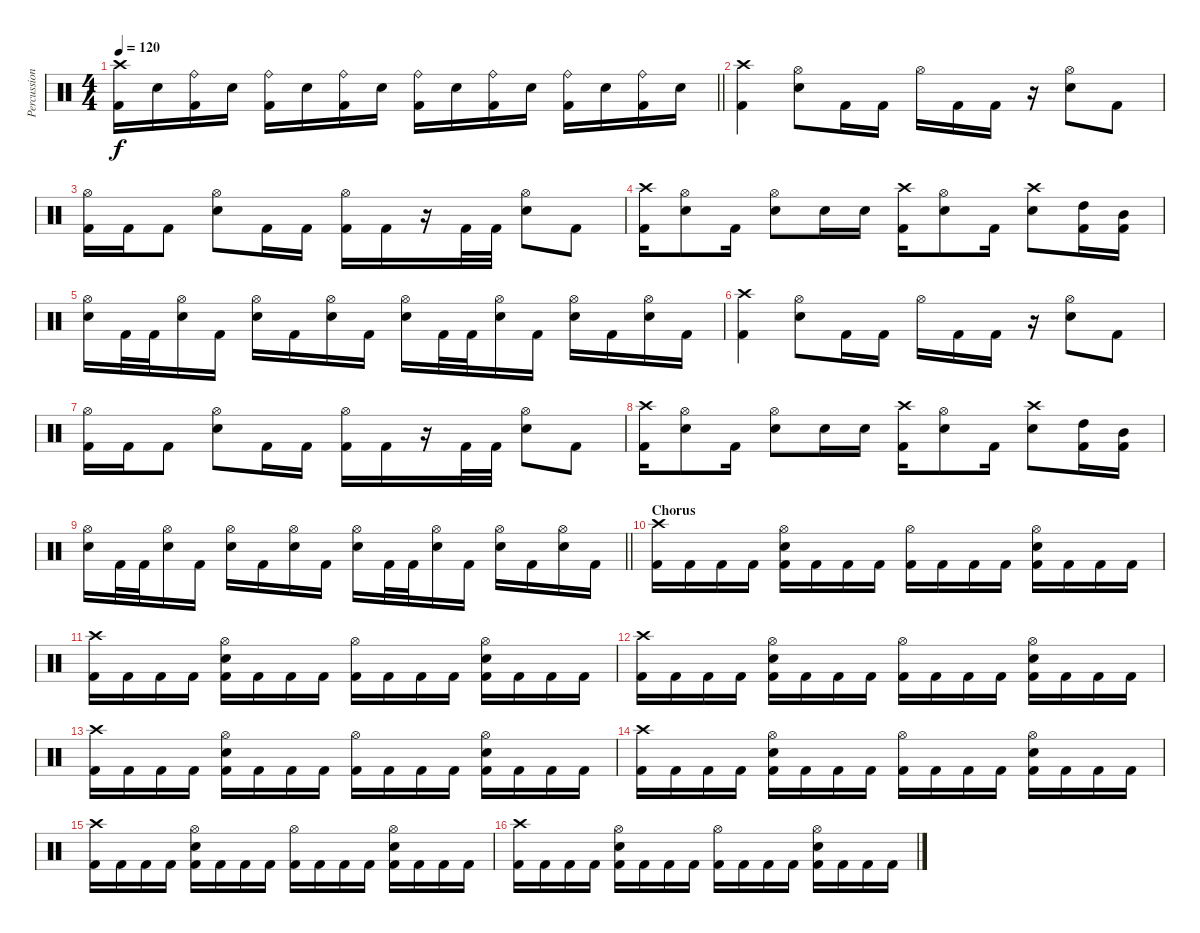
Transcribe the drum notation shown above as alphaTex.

\track ("Percussion" "Percussion") {instrument percussion}
\staff {score}
\articulation defaults
\ts (4 4)
\tempo 120
\clef neutral
\barLineRight lightlight
\ks c
("Crash high (hit)" "Kick (hit) 2").16{dy f} "Electric Snare (hit)".16 ("Ride (bell)" "Kick (hit) 2").16 "Electric Snare (hit)".16 ("Ride (bell)" "Kick (hit) 2").16 "Electric Snare (hit)".16 ("Ride (bell)" "Kick (hit) 2").16 "Electric Snare (hit)".16 ("Ride (bell)" "Kick (hit) 2").16 "Electric Snare (hit)".16 ("Ride (bell)" "Kick (hit) 2").16 "Electric Snare (hit)".16 ("Ride (bell)" "Kick (hit) 2").16 "Electric Snare (hit)".16 ("Ride (bell)" "Kick (hit) 2").16 "Electric Snare (hit)".16 |
\section ("" "")
("Crash high (hit)" "Kick (hit) 2").4 ("Hi-Hat (open)" "Electric Snare (hit)").8 "Kick (hit) 2".16 "Kick (hit) 2".16 "Hi-Hat (open)".16 "Kick (hit) 2".16 "Kick (hit) 2".16 r.16 ("Hi-Hat (open)" "Electric Snare (hit)").8 "Kick (hit) 2".8 |
("Hi-Hat (open)" "Kick (hit) 2").16 "Kick (hit) 2".16 "Kick (hit) 2".8 ("Hi-Hat (open)" "Electric Snare (hit)").8 "Kick (hit) 2".16 "Kick (hit) 2".16 ("Hi-Hat (open)" "Kick (hit) 2").16 "Kick (hit) 2".16 r.16 "Kick (hit) 2".32 "Kick (hit) 2".32 ("Hi-Hat (open)" "Electric Snare (hit)").8 "Kick (hit) 2".8 |
("Crash high (hit)" "Kick (hit) 2").16 ("Hi-Hat (open)" "Electric Snare (hit)").8 "Kick (hit) 2".16 ("Hi-Hat (open)" "Electric Snare (hit)").8 "Electric Snare (hit)".16 "Electric Snare (hit)".16 ("Crash high (hit)" "Kick (hit) 2").16 ("Hi-Hat (open)" "Electric Snare (hit)").8 "Kick (hit) 2".16 ("Crash high (hit)" "Electric Snare (hit)").8 ("High Tom (hit)" "Kick (hit) 2").16 ("Mid Tom (hit)" "Kick (hit) 2").16 |
("Hi-Hat (open)" "Electric Snare (hit)").16 "Kick (hit) 2".32 "Kick (hit) 2".32 ("Hi-Hat (open)" "Electric Snare (hit)").16 "Kick (hit) 2".16 ("Hi-Hat (open)" "Electric Snare (hit)").16 "Kick (hit) 2".16 ("Hi-Hat (open)" "Electric Snare (hit)").16 "Kick (hit) 2".16 ("Hi-Hat (open)" "Electric Snare (hit)").16 "Kick (hit) 2".32 "Kick (hit) 2".32 ("Hi-Hat (open)" "Electric Snare (hit)").16 "Kick (hit) 2".16 ("Hi-Hat (open)" "Electric Snare (hit)").16 "Kick (hit) 2".16 ("Hi-Hat (open)" "Electric Snare (hit)").16 "Kick (hit) 2".16 |
("Crash high (hit)" "Kick (hit) 2").4 ("Hi-Hat (open)" "Electric Snare (hit)").8 "Kick (hit) 2".16 "Kick (hit) 2".16 "Hi-Hat (open)".16 "Kick (hit) 2".16 "Kick (hit) 2".16 r.16 ("Hi-Hat (open)" "Electric Snare (hit)").8 "Kick (hit) 2".8 |
("Hi-Hat (open)" "Kick (hit) 2").16 "Kick (hit) 2".16 "Kick (hit) 2".8 ("Hi-Hat (open)" "Electric Snare (hit)").8 "Kick (hit) 2".16 "Kick (hit) 2".16 ("Hi-Hat (open)" "Kick (hit) 2").16 "Kick (hit) 2".16 r.16 "Kick (hit) 2".32 "Kick (hit) 2".32 ("Hi-Hat (open)" "Electric Snare (hit)").8 "Kick (hit) 2".8 |
("Crash high (hit)" "Kick (hit) 2").16 ("Hi-Hat (open)" "Electric Snare (hit)").8 "Kick (hit) 2".16 ("Hi-Hat (open)" "Electric Snare (hit)").8 "Electric Snare (hit)".16 "Electric Snare (hit)".16 ("Crash high (hit)" "Kick (hit) 2").16 ("Hi-Hat (open)" "Electric Snare (hit)").8 "Kick (hit) 2".16 ("Crash high (hit)" "Electric Snare (hit)").8 ("High Tom (hit)" "Kick (hit) 2").16 ("Mid Tom (hit)" "Kick (hit) 2").16 |
\barLineRight lightlight
("Hi-Hat (open)" "Electric Snare (hit)").16 "Kick (hit) 2".32 "Kick (hit) 2".32 ("Hi-Hat (open)" "Electric Snare (hit)").16 "Kick (hit) 2".16 ("Hi-Hat (open)" "Electric Snare (hit)").16 "Kick (hit) 2".16 ("Hi-Hat (open)" "Electric Snare (hit)").16 "Kick (hit) 2".16 ("Hi-Hat (open)" "Electric Snare (hit)").16 "Kick (hit) 2".32 "Kick (hit) 2".32 ("Hi-Hat (open)" "Electric Snare (hit)").16 "Kick (hit) 2".16 ("Hi-Hat (open)" "Electric Snare (hit)").16 "Kick (hit) 2".16 ("Hi-Hat (open)" "Electric Snare (hit)").16 "Kick (hit) 2".16 |
\section ("" "Chorus")
("Crash high (hit)" "Kick (hit) 2").16 "Kick (hit) 2".16 "Kick (hit) 2".16 "Kick (hit) 2".16 ("Hi-Hat (open)" "Electric Snare (hit)" "Kick (hit) 2").16 "Kick (hit) 2".16 "Kick (hit) 2".16 "Kick (hit) 2".16 ("Hi-Hat (open)" "Kick (hit) 2").16 "Kick (hit) 2".16 "Kick (hit) 2".16 "Kick (hit) 2".16 ("Hi-Hat (open)" "Electric Snare (hit)" "Kick (hit) 2").16 "Kick (hit) 2".16 "Kick (hit) 2".16 "Kick (hit) 2".16 |
("Crash high (hit)" "Kick (hit) 2").16 "Kick (hit) 2".16 "Kick (hit) 2".16 "Kick (hit) 2".16 ("Hi-Hat (open)" "Electric Snare (hit)" "Kick (hit) 2").16 "Kick (hit) 2".16 "Kick (hit) 2".16 "Kick (hit) 2".16 ("Hi-Hat (open)" "Kick (hit) 2").16 "Kick (hit) 2".16 "Kick (hit) 2".16 "Kick (hit) 2".16 ("Hi-Hat (open)" "Electric Snare (hit)" "Kick (hit) 2").16 "Kick (hit) 2".16 "Kick (hit) 2".16 "Kick (hit) 2".16 |
("Crash high (hit)" "Kick (hit) 2").16 "Kick (hit) 2".16 "Kick (hit) 2".16 "Kick (hit) 2".16 ("Hi-Hat (open)" "Electric Snare (hit)" "Kick (hit) 2").16 "Kick (hit) 2".16 "Kick (hit) 2".16 "Kick (hit) 2".16 ("Hi-Hat (open)" "Kick (hit) 2").16 "Kick (hit) 2".16 "Kick (hit) 2".16 "Kick (hit) 2".16 ("Hi-Hat (open)" "Electric Snare (hit)" "Kick (hit) 2").16 "Kick (hit) 2".16 "Kick (hit) 2".16 "Kick (hit) 2".16 |
("Crash high (hit)" "Kick (hit) 2").16 "Kick (hit) 2".16 "Kick (hit) 2".16 "Kick (hit) 2".16 ("Hi-Hat (open)" "Electric Snare (hit)" "Kick (hit) 2").16 "Kick (hit) 2".16 "Kick (hit) 2".16 "Kick (hit) 2".16 ("Hi-Hat (open)" "Kick (hit) 2").16 "Kick (hit) 2".16 "Kick (hit) 2".16 "Kick (hit) 2".16 ("Hi-Hat (open)" "Electric Snare (hit)" "Kick (hit) 2").16 "Kick (hit) 2".16 "Kick (hit) 2".16 "Kick (hit) 2".16 |
("Crash high (hit)" "Kick (hit) 2").16 "Kick (hit) 2".16 "Kick (hit) 2".16 "Kick (hit) 2".16 ("Hi-Hat (open)" "Electric Snare (hit)" "Kick (hit) 2").16 "Kick (hit) 2".16 "Kick (hit) 2".16 "Kick (hit) 2".16 ("Hi-Hat (open)" "Kick (hit) 2").16 "Kick (hit) 2".16 "Kick (hit) 2".16 "Kick (hit) 2".16 ("Hi-Hat (open)" "Electric Snare (hit)" "Kick (hit) 2").16 "Kick (hit) 2".16 "Kick (hit) 2".16 "Kick (hit) 2".16 |
("Crash high (hit)" "Kick (hit) 2").16 "Kick (hit) 2".16 "Kick (hit) 2".16 "Kick (hit) 2".16 ("Hi-Hat (open)" "Electric Snare (hit)" "Kick (hit) 2").16 "Kick (hit) 2".16 "Kick (hit) 2".16 "Kick (hit) 2".16 ("Hi-Hat (open)" "Kick (hit) 2").16 "Kick (hit) 2".16 "Kick (hit) 2".16 "Kick (hit) 2".16 ("Hi-Hat (open)" "Electric Snare (hit)" "Kick (hit) 2").16 "Kick (hit) 2".16 "Kick (hit) 2".16 "Kick (hit) 2".16 |
("Crash high (hit)" "Kick (hit) 2").16 "Kick (hit) 2".16 "Kick (hit) 2".16 "Kick (hit) 2".16 ("Hi-Hat (open)" "Electric Snare (hit)" "Kick (hit) 2").16 "Kick (hit) 2".16 "Kick (hit) 2".16 "Kick (hit) 2".16 ("Hi-Hat (open)" "Kick (hit) 2").16 "Kick (hit) 2".16 "Kick (hit) 2".16 "Kick (hit) 2".16 ("Hi-Hat (open)" "Electric Snare (hit)" "Kick (hit) 2").16 "Kick (hit) 2".16 "Kick (hit) 2".16 "Kick (hit) 2".16
